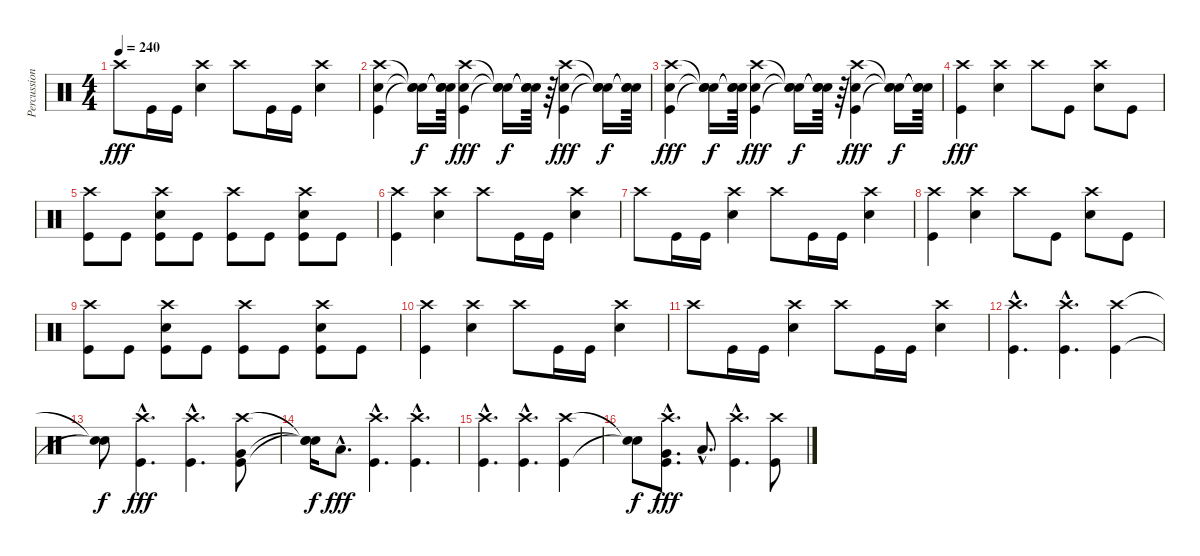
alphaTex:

\track ("Percussion" "Percussion") {instrument percussion}
\staff {score}
\articulation defaults
\ts (4 4)
\tempo 240
\clef neutral
\ks c "Crash high (hit)".8{dy fff} "Kick (hit)".16 "Kick (hit)".16
("Crash high (hit)" "Snare (hit) 2").4 "Crash high (hit)".8 "Kick (hit)".16 "Kick (hit)".16 ("Crash high (hit)" "Snare (hit) 2").4 |
("Crash high (hit)" "Snare (hit) 2" "Kick (hit)").4 ("Snare (hit)"{t} "Snare (hit)"{t} "Snare (hit)"{t}).16{dy f} ("Snare (hit)"{t} "Snare (hit)"{t} "Snare (hit)"{t}).64 ("Crash high (hit)" "Snare (hit) 2" "Kick (hit)").4{dy fff} ("Snare (hit)"{t} "Snare (hit)"{t} "Snare (hit)"{t}).16{dy f} ("Snare (hit)"{t} "Snare (hit)"{t} "Snare (hit)"{t}).64 r.64 ("Crash high (hit)" "Snare (hit) 2" "Kick (hit)").4{dy fff} ("Snare (hit)"{t} "Snare (hit)"{t} "Snare (hit)"{t}).16{dy f} ("Snare (hit)"{t} "Snare (hit)"{t} "Snare (hit)"{t}).64 |
("Crash high (hit)" "Snare (hit) 2" "Kick (hit)").4{dy fff} ("Snare (hit)"{t} "Snare (hit)"{t} "Snare (hit)"{t}).16{dy f} ("Snare (hit)"{t} "Snare (hit)"{t} "Snare (hit)"{t}).64 ("Crash high (hit)" "Snare (hit) 2" "Kick (hit)").4{dy fff} ("Snare (hit)"{t} "Snare (hit)"{t} "Snare (hit)"{t}).16{dy f} ("Snare (hit)"{t} "Snare (hit)"{t} "Snare (hit)"{t}).64 r.64 ("Crash high (hit)" "Snare (hit) 2" "Kick (hit)").4{dy fff} ("Snare (hit)"{t} "Snare (hit)"{t} "Snare (hit)"{t}).16{dy f} ("Snare (hit)"{t} "Snare (hit)"{t} "Snare (hit)"{t}).64 |
("Crash high (hit)" "Kick (hit)").4{dy fff} ("Crash high (hit)" "Snare (hit) 2").4 "Crash high (hit)".8 "Kick (hit)".8 ("Crash high (hit)" "Snare (hit) 2").8 "Kick (hit)".8 |
("Crash high (hit)" "Kick (hit)").8 "Kick (hit)".8 ("Crash high (hit)" "Snare (hit) 2" "Kick (hit)").8 "Kick (hit)".8 ("Crash high (hit)" "Kick (hit)").8 "Kick (hit)".8 ("Crash high (hit)" "Snare (hit) 2" "Kick (hit)").8 "Kick (hit)".8 |
("Crash high (hit)" "Kick (hit)").4 ("Crash high (hit)" "Snare (hit) 2").4 "Crash high (hit)".8 "Kick (hit)".16 "Kick (hit)".16 ("Crash high (hit)" "Snare (hit) 2").4 |
"Crash high (hit)".8 "Kick (hit)".16 "Kick (hit)".16 ("Crash high (hit)" "Snare (hit) 2").4 "Crash high (hit)".8 "Kick (hit)".16 "Kick (hit)".16 ("Crash high (hit)" "Snare (hit) 2").4 |
("Crash high (hit)" "Kick (hit)").4 ("Crash high (hit)" "Snare (hit) 2").4 "Crash high (hit)".8 "Kick (hit)".8 ("Crash high (hit)" "Snare (hit) 2").8 "Kick (hit)".8 |
("Crash high (hit)" "Kick (hit)").8 "Kick (hit)".8 ("Crash high (hit)" "Snare (hit) 2" "Kick (hit)").8 "Kick (hit)".8 ("Crash high (hit)" "Kick (hit)").8 "Kick (hit)".8 ("Crash high (hit)" "Snare (hit) 2" "Kick (hit)").8 "Kick (hit)".8 |
("Crash high (hit)" "Kick (hit)").4 ("Crash high (hit)" "Snare (hit) 2").4 "Crash high (hit)".8 "Kick (hit)".16 "Kick (hit)".16 ("Crash high (hit)" "Snare (hit) 2").4 |
"Crash high (hit)".8 "Kick (hit)".16 "Kick (hit)".16 ("Crash high (hit)" "Snare (hit) 2").4 "Crash high (hit)".8 "Kick (hit)".16 "Kick (hit)".16 ("Crash high (hit)" "Snare (hit) 2").4 |
("Crash high (hit)"{hac} "Kick (hit)"{hac}).4{d} ("Crash high (hit)"{hac} "Kick (hit)"{hac}).4{d} ("Crash high (hit)" "Kick (hit)").4 |
("Snare (hit)"{t} "Snare (hit)"{t}).8{dy f} ("Crash high (hit)"{hac} "Kick (hit)"{hac}).4{d dy fff} ("Crash high (hit)"{hac} "Kick (hit)"{hac}).4{d} ("Crash high (hit)" "Very Low Tom (hit)" "Kick (hit)").8 |
("Snare (hit)"{t} "Snare (hit)"{t} "Snare (hit)"{t}).16{dy f} "Low Floor Tom (hit)"{hac}.8{d dy fff} ("Crash high (hit)"{hac} "Kick (hit)"{hac}).4{d} ("Crash high (hit)"{hac} "Kick (hit)"{hac}).4{d} |
("Crash high (hit)"{hac} "Kick (hit)"{hac}).4{d} ("Crash high (hit)"{hac} "Kick (hit)"{hac}).4{d} ("Crash high (hit)" "Kick (hit)").4 |
("Snare (hit)"{t} "Snare (hit)"{t}).8{dy f} ("Crash high (hit)"{hac} "Very Low Tom (hit)"{hac} "Kick (hit)"{hac}).8{d dy fff} "Low Floor Tom (hit)"{hac}.8{d} ("Crash high (hit)"{hac} "Kick (hit)"{hac}).4{d} ("Crash high (hit)" "Kick (hit)").8
